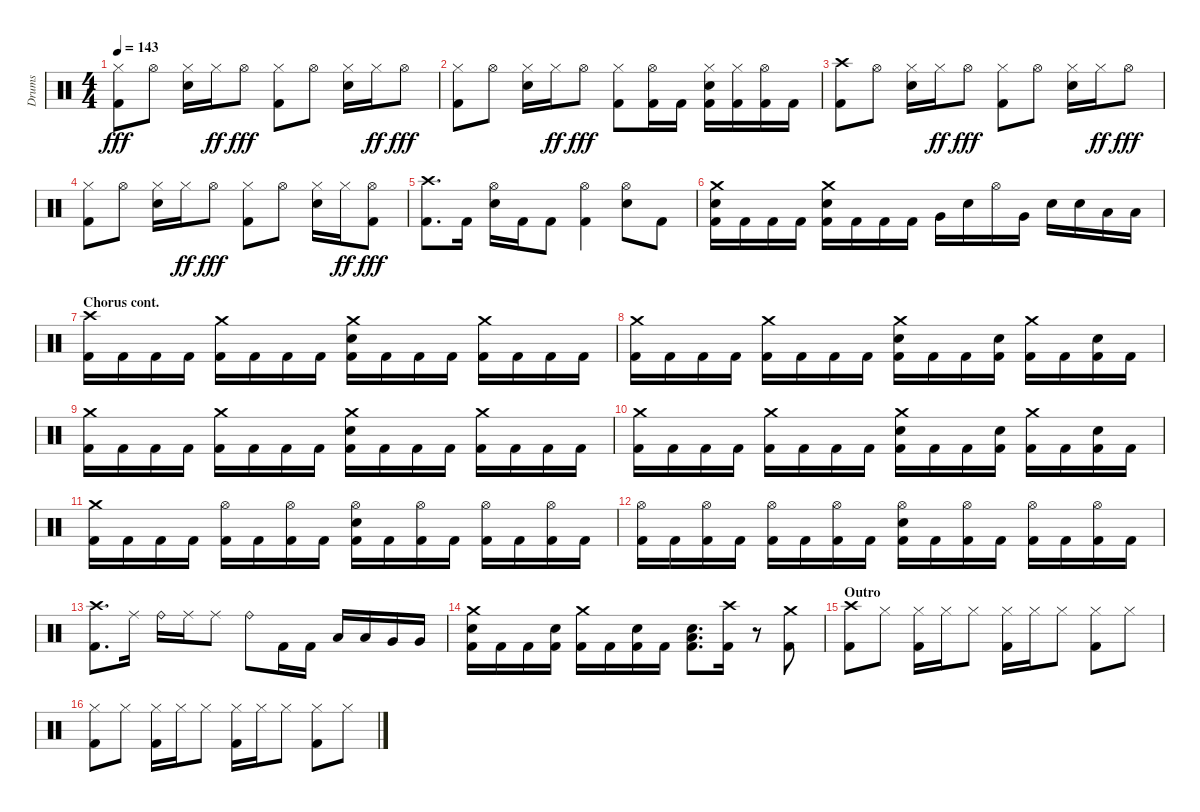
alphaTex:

\track ("Drums" "Drums") {instrument percussion}
\staff {score}
\articulation defaults
\ts (4 4)
\tempo 143
\clef neutral
\ks aminor
("Kick (hit) 2" "Hi-Hat (closed)").8{dy fff} "Hi-Hat (open)".8 ("Snare (hit) 2" "Hi-Hat (closed)").16 "Hi-Hat (closed)".16{dy ff} "Hi-Hat (open)".8{dy fff} ("Kick (hit) 2" "Hi-Hat (closed)").8 "Hi-Hat (open)".8 ("Snare (hit) 2" "Hi-Hat (closed)").16 "Hi-Hat (closed)".16{dy ff} "Hi-Hat (open)".8{dy fff} |
("Kick (hit) 2" "Hi-Hat (closed)").8 "Hi-Hat (open)".8 ("Snare (hit) 2" "Hi-Hat (closed)").16 "Hi-Hat (closed)".16{dy ff} "Hi-Hat (open)".8{dy fff} ("Kick (hit) 2" "Hi-Hat (closed)").8 ("Kick (hit) 2" "Hi-Hat (open)").16 "Kick (hit) 2".16 ("Kick (hit) 2" "Snare (hit) 2" "Hi-Hat (closed)").16 ("Kick (hit) 2" "Hi-Hat (closed)").16 ("Kick (hit) 2" "Hi-Hat (open)").16 "Kick (hit) 2".16 |
("Kick (hit) 2" "Crash high (hit)").8 "Hi-Hat (open)".8 ("Snare (hit) 2" "Hi-Hat (closed)").16 "Hi-Hat (closed)".16{dy ff} "Hi-Hat (open)".8{dy fff} ("Kick (hit) 2" "Hi-Hat (closed)").8 "Hi-Hat (open)".8 ("Snare (hit) 2" "Hi-Hat (closed)").16 "Hi-Hat (closed)".16{dy ff} "Hi-Hat (open)".8{dy fff} |
("Kick (hit) 2" "Hi-Hat (closed)").8 "Hi-Hat (open)".8 ("Snare (hit) 2" "Hi-Hat (closed)").16 "Hi-Hat (closed)".16{dy ff} "Hi-Hat (open)".8{dy fff} ("Kick (hit) 2" "Hi-Hat (closed)").8 "Hi-Hat (open)".8 ("Snare (hit) 2" "Hi-Hat (closed)").16 "Hi-Hat (closed)".16{dy ff} ("Kick (hit) 2" "Hi-Hat (open)").8{dy fff} |
("Kick (hit) 2" "Crash high (hit)").8{d} "Kick (hit) 2".16 ("Snare (hit) 2" "Hi-Hat (open)").16 "Kick (hit) 2".16 "Kick (hit) 2".8 ("Kick (hit) 2" "Hi-Hat (open)").4 ("Snare (hit) 2" "Hi-Hat (open)").8 "Kick (hit) 2".8 |
("Kick (hit) 2" "Snare (hit) 2" "Crash medium (hit)").16 "Kick (hit) 2".16 "Kick (hit) 2".16 "Kick (hit) 2".16 ("Kick (hit) 2" "Snare (hit) 2" "Crash medium (hit)").16 "Kick (hit) 2".16 "Kick (hit) 2".16 "Kick (hit) 2".16 "Very Low Tom (hit)".16 "Snare (hit) 2".16 "Hi-Hat (open)".16 "Very Low Tom (hit)".16 "Snare (hit) 2".16 "Snare (hit) 2".16 "Low Floor Tom (hit)".16 "Low Floor Tom (hit)".16 |
\section ("" "Chorus cont.")
("Kick (hit) 2" "Crash high (hit)").16 "Kick (hit) 2".16 "Kick (hit) 2".16 "Kick (hit) 2".16 ("Kick (hit) 2" "Crash medium (hit)").16 "Kick (hit) 2".16 "Kick (hit) 2".16 "Kick (hit) 2".16 ("Kick (hit) 2" "Snare (hit) 2" "Crash medium (hit)").16 "Kick (hit) 2".16 "Kick (hit) 2".16 "Kick (hit) 2".16 ("Kick (hit) 2" "Crash medium (hit)").16 "Kick (hit) 2".16 "Kick (hit) 2".16 "Kick (hit) 2".16 |
("Kick (hit) 2" "Crash medium (hit)").16 "Kick (hit) 2".16 "Kick (hit) 2".16 "Kick (hit) 2".16 ("Kick (hit) 2" "Crash medium (hit)").16 "Kick (hit) 2".16 "Kick (hit) 2".16 "Kick (hit) 2".16 ("Kick (hit) 2" "Snare (hit) 2" "Crash medium (hit)").16 "Kick (hit) 2".16 "Kick (hit) 2".16 ("Kick (hit) 2" "Snare (hit) 2").16 ("Kick (hit) 2" "Crash medium (hit)").16 "Kick (hit) 2".16 ("Kick (hit) 2" "Snare (hit) 2").16 "Kick (hit) 2".16 |
("Kick (hit) 2" "Crash medium (hit)").16 "Kick (hit) 2".16 "Kick (hit) 2".16 "Kick (hit) 2".16 ("Kick (hit) 2" "Crash medium (hit)").16 "Kick (hit) 2".16 "Kick (hit) 2".16 "Kick (hit) 2".16 ("Kick (hit) 2" "Snare (hit) 2" "Crash medium (hit)").16 "Kick (hit) 2".16 "Kick (hit) 2".16 "Kick (hit) 2".16 ("Kick (hit) 2" "Crash medium (hit)").16 "Kick (hit) 2".16 "Kick (hit) 2".16 "Kick (hit) 2".16 |
("Kick (hit) 2" "Crash medium (hit)").16 "Kick (hit) 2".16 "Kick (hit) 2".16 "Kick (hit) 2".16 ("Kick (hit) 2" "Crash medium (hit)").16 "Kick (hit) 2".16 "Kick (hit) 2".16 "Kick (hit) 2".16 ("Kick (hit) 2" "Snare (hit) 2" "Crash medium (hit)").16 "Kick (hit) 2".16 "Kick (hit) 2".16 ("Kick (hit) 2" "Snare (hit) 2").16 ("Kick (hit) 2" "Crash medium (hit)").16 "Kick (hit) 2".16 ("Kick (hit) 2" "Snare (hit) 2").16 "Kick (hit) 2".16 |
("Kick (hit) 2" "Crash medium (hit)").16 "Kick (hit) 2".16 "Kick (hit) 2".16 "Kick (hit) 2".16 ("Kick (hit) 2" "Hi-Hat (open)").16 "Kick (hit) 2".16 ("Kick (hit) 2" "Hi-Hat (open)").16 "Kick (hit) 2".16 ("Kick (hit) 2" "Snare (hit) 2" "Hi-Hat (open)").16 "Kick (hit) 2".16 ("Kick (hit) 2" "Hi-Hat (open)").16 "Kick (hit) 2".16 ("Kick (hit) 2" "Hi-Hat (open)").16 "Kick (hit) 2".16 ("Kick (hit) 2" "Hi-Hat (open)").16 "Kick (hit) 2".16 |
("Kick (hit) 2" "Hi-Hat (open)").16 "Kick (hit) 2".16 ("Kick (hit) 2" "Hi-Hat (open)").16 "Kick (hit) 2".16 ("Kick (hit) 2" "Hi-Hat (open)").16 "Kick (hit) 2".16 ("Kick (hit) 2" "Hi-Hat (open)").16 "Kick (hit) 2".16 ("Kick (hit) 2" "Snare (hit) 2" "Hi-Hat (open)").16 "Kick (hit) 2".16 ("Kick (hit) 2" "Hi-Hat (open)").16 "Kick (hit) 2".16 ("Kick (hit) 2" "Hi-Hat (open)").16 "Kick (hit) 2".16 ("Kick (hit) 2" "Hi-Hat (open)").16 "Kick (hit) 2".16 |
("Kick (hit) 2" "Crash high (hit)").8{d} "Ride (middle)".16 "Ride (bell)".16 "Ride (middle)".16 "Ride (middle)".8 "Ride (bell)".8 "Kick (hit) 2".16 "Kick (hit) 2".16 "Low Tom (hit)".16 "Low Tom (hit)".16 "Very Low Tom (hit)".16 "Very Low Tom (hit)".16 |
("Kick (hit) 2" "Snare (hit) 2" "Crash medium (hit)").16 "Kick (hit) 2".16 "Kick (hit) 2".16 ("Kick (hit) 2" "Snare (hit) 2").16 ("Kick (hit) 2" "Crash medium (hit)").16 "Kick (hit) 2".16 ("Kick (hit) 2" "Snare (hit) 2").16 "Kick (hit) 2".16 ("Kick (hit) 2" "Snare (hit) 2" "Low Floor Tom (hit)").8{d} ("Kick (hit) 2" "Crash high (hit)").16 r.8 ("Kick (hit) 2" "Crash medium (hit)").8 |
\section ("" "Outro")
("Kick (hit) 2" "Crash high (hit)").8 "Hi-Hat (closed)".8 ("Kick (hit) 2" "Hi-Hat (closed)").16 "Hi-Hat (closed)".16 "Hi-Hat (closed)".8 ("Kick (hit) 2" "Hi-Hat (closed)").16 "Hi-Hat (closed)".16 "Hi-Hat (closed)".8 ("Kick (hit) 2" "Hi-Hat (closed)").8 "Hi-Hat (closed)".8 |
("Kick (hit) 2" "Hi-Hat (closed)").8 "Hi-Hat (closed)".8 ("Kick (hit) 2" "Hi-Hat (closed)").16 "Hi-Hat (closed)".16 "Hi-Hat (closed)".8 ("Kick (hit) 2" "Hi-Hat (closed)").16 "Hi-Hat (closed)".16 "Hi-Hat (closed)".8 ("Kick (hit) 2" "Hi-Hat (closed)").8 "Hi-Hat (closed)".8
